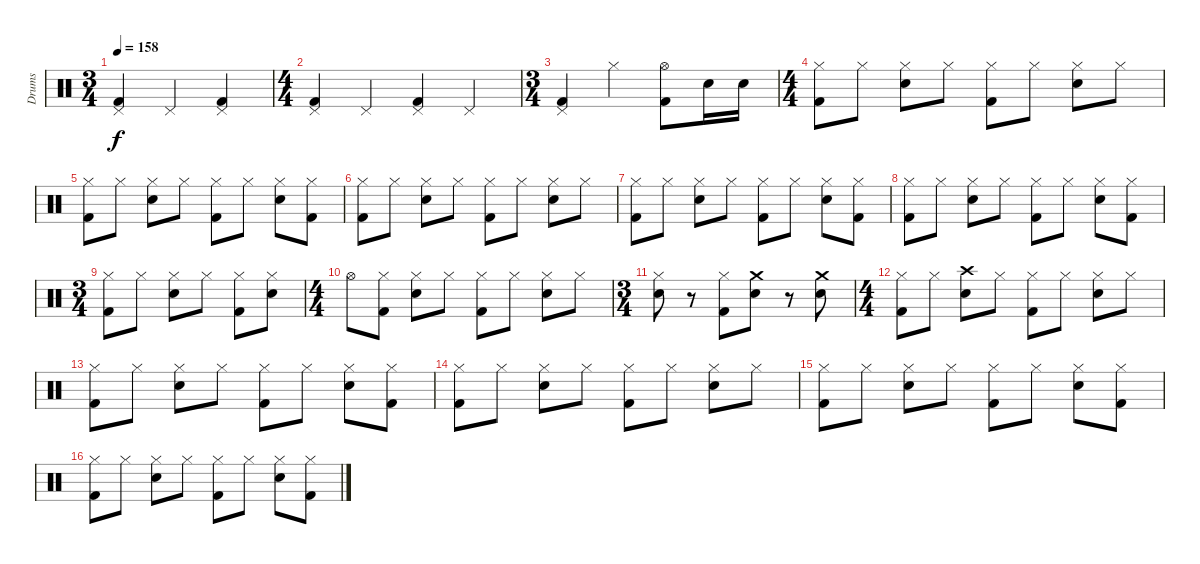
\track ("Drums" "Drums") {instrument percussion}
\staff {score}
\articulation defaults
\ts (3 4)
\tempo 158
\clef neutral
\ks c
("Pedal Hi-Hat (hit)" "Kick (hit) 2").4{dy f} "Pedal Hi-Hat (hit)".4 ("Pedal Hi-Hat (hit)" "Kick (hit) 2").4 |
\ts (4 4)
("Pedal Hi-Hat (hit)" "Kick (hit) 2").4 "Pedal Hi-Hat (hit)".4 ("Pedal Hi-Hat (hit)" "Kick (hit) 2").4 "Pedal Hi-Hat (hit)".4 |
\ts (3 4)
("Pedal Hi-Hat (hit)" "Kick (hit) 2").4 "Hi-Hat (closed)".4 ("Hi-Hat (open)" "Kick (hit) 2").8 "Snare (hit) 2".16 "Snare (hit) 2".16 |
\ts (4 4)
("Hi-Hat (closed)" "Kick (hit) 2").8 "Hi-Hat (closed)".8 ("Hi-Hat (closed)" "Snare (hit) 2").8 "Hi-Hat (closed)".8 ("Hi-Hat (closed)" "Kick (hit) 2").8 "Hi-Hat (closed)".8 ("Hi-Hat (closed)" "Snare (hit) 2").8 "Hi-Hat (closed)".8 |
("Hi-Hat (closed)" "Kick (hit) 2").8 "Hi-Hat (closed)".8 ("Hi-Hat (closed)" "Snare (hit) 2").8 "Hi-Hat (closed)".8 ("Hi-Hat (closed)" "Kick (hit) 2").8 "Hi-Hat (closed)".8 ("Hi-Hat (closed)" "Snare (hit) 2").8 ("Hi-Hat (closed)" "Kick (hit) 2").8 |
("Hi-Hat (closed)" "Kick (hit) 2").8 "Hi-Hat (closed)".8 ("Hi-Hat (closed)" "Snare (hit) 2").8 "Hi-Hat (closed)".8 ("Hi-Hat (closed)" "Kick (hit) 2").8 "Hi-Hat (closed)".8 ("Hi-Hat (closed)" "Snare (hit) 2").8 "Hi-Hat (closed)".8 |
("Hi-Hat (closed)" "Kick (hit) 2").8 "Hi-Hat (closed)".8 ("Hi-Hat (closed)" "Snare (hit) 2").8 "Hi-Hat (closed)".8 ("Hi-Hat (closed)" "Kick (hit) 2").8 "Hi-Hat (closed)".8 ("Hi-Hat (closed)" "Snare (hit) 2").8 ("Hi-Hat (closed)" "Kick (hit) 2").8 |
("Hi-Hat (closed)" "Kick (hit) 2").8 "Hi-Hat (closed)".8 ("Hi-Hat (closed)" "Snare (hit) 2").8 "Hi-Hat (closed)".8 ("Hi-Hat (closed)" "Kick (hit) 2").8 "Hi-Hat (closed)".8 ("Hi-Hat (closed)" "Snare (hit) 2").8 ("Hi-Hat (closed)" "Kick (hit) 2").8 |
\ts (3 4)
("Hi-Hat (closed)" "Kick (hit) 2").8 "Hi-Hat (closed)".8 ("Hi-Hat (closed)" "Snare (hit) 2").8 "Hi-Hat (closed)".8 ("Hi-Hat (closed)" "Kick (hit) 2").8 ("Hi-Hat (closed)" "Snare (hit) 2").8 |
\ts (4 4)
"Hi-Hat (open)".8 ("Hi-Hat (closed)" "Kick (hit) 2").8 ("Hi-Hat (closed)" "Snare (hit) 2").8 "Hi-Hat (closed)".8 ("Hi-Hat (closed)" "Kick (hit) 2").8 "Hi-Hat (closed)".8 ("Hi-Hat (closed)" "Snare (hit) 2").8 "Hi-Hat (closed)".8 |
\ts (3 4)
("Hi-Hat (closed)" "Snare (hit) 2").8 r.8 ("Hi-Hat (closed)" "Kick (hit) 2").8 ("Crash medium (hit)" "Snare (hit) 2").8 r.8 ("Crash medium (hit)" "Snare (hit) 2").8 |
\ts (4 4)
("Hi-Hat (closed)" "Kick (hit) 2").8 "Hi-Hat (closed)".8 ("Crash high (hit)" "Snare (hit) 2").8 "Hi-Hat (closed)".8 ("Hi-Hat (closed)" "Kick (hit) 2").8 "Hi-Hat (closed)".8 ("Hi-Hat (closed)" "Snare (hit) 2").8 "Hi-Hat (closed)".8 |
("Hi-Hat (closed)" "Kick (hit) 2").8 "Hi-Hat (closed)".8 ("Hi-Hat (closed)" "Snare (hit) 2").8 "Hi-Hat (closed)".8 ("Hi-Hat (closed)" "Kick (hit) 2").8 "Hi-Hat (closed)".8 ("Hi-Hat (closed)" "Snare (hit) 2").8 ("Hi-Hat (closed)" "Kick (hit) 2").8 |
("Hi-Hat (closed)" "Kick (hit) 2").8 "Hi-Hat (closed)".8 ("Hi-Hat (closed)" "Snare (hit) 2").8 "Hi-Hat (closed)".8 ("Hi-Hat (closed)" "Kick (hit) 2").8 "Hi-Hat (closed)".8 ("Hi-Hat (closed)" "Snare (hit) 2").8 "Hi-Hat (closed)".8 |
("Hi-Hat (closed)" "Kick (hit) 2").8 "Hi-Hat (closed)".8 ("Hi-Hat (closed)" "Snare (hit) 2").8 "Hi-Hat (closed)".8 ("Hi-Hat (closed)" "Kick (hit) 2").8 "Hi-Hat (closed)".8 ("Hi-Hat (closed)" "Snare (hit) 2").8 ("Hi-Hat (closed)" "Kick (hit) 2").8 |
("Hi-Hat (closed)" "Kick (hit) 2").8 "Hi-Hat (closed)".8 ("Hi-Hat (closed)" "Snare (hit) 2").8 "Hi-Hat (closed)".8 ("Hi-Hat (closed)" "Kick (hit) 2").8 "Hi-Hat (closed)".8 ("Hi-Hat (closed)" "Snare (hit) 2").8 ("Hi-Hat (closed)" "Kick (hit) 2").8
